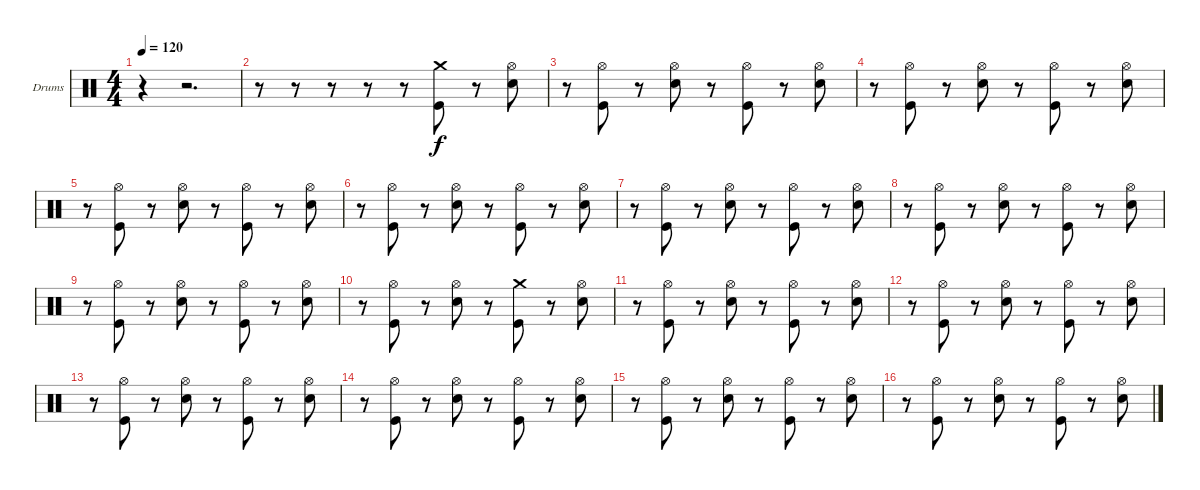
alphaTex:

\defaultSystemsLayout 4
\bracketExtendMode groupsimilarinstruments
\firstSystemTrackNameOrientation horizontal
\otherSystemsTrackNameOrientation horizontal
\track ("Drumkit" "Drums") {instrument percussion}
\staff {score}
\articulation defaults
\ts (4 4)
\tempo 120
\clef neutral
\ks c
r.4{dy f} r.2{d} |
r.8 r.8 r.8 r.8 r.8 ("Crash medium (hit)" "Kick (hit)").8 r.8 ("Hi-Hat (open)" "Snare (hit) 2").8 |
r.8 ("Kick (hit)" "Hi-Hat (open)").8 r.8 ("Snare (hit) 2" "Hi-Hat (open)").8 r.8 ("Kick (hit)" "Hi-Hat (open)").8 r.8 ("Snare (hit) 2" "Hi-Hat (open)").8 |
r.8 ("Kick (hit)" "Hi-Hat (open)").8 r.8 ("Snare (hit) 2" "Hi-Hat (open)").8 r.8 ("Kick (hit)" "Hi-Hat (open)").8 r.8 ("Snare (hit) 2" "Hi-Hat (open)").8 |
r.8 ("Kick (hit)" "Hi-Hat (open)").8 r.8 ("Snare (hit) 2" "Hi-Hat (open)").8 r.8 ("Kick (hit)" "Hi-Hat (open)").8 r.8 ("Snare (hit) 2" "Hi-Hat (open)").8 |
r.8 ("Kick (hit)" "Hi-Hat (open)").8 r.8 ("Snare (hit) 2" "Hi-Hat (open)").8 r.8 ("Kick (hit)" "Hi-Hat (open)").8 r.8 ("Snare (hit) 2" "Hi-Hat (open)").8 |
r.8 ("Kick (hit)" "Hi-Hat (open)").8 r.8 ("Snare (hit) 2" "Hi-Hat (open)").8 r.8 ("Kick (hit)" "Hi-Hat (open)").8 r.8 ("Snare (hit) 2" "Hi-Hat (open)").8 |
r.8 ("Kick (hit)" "Hi-Hat (open)").8 r.8 ("Snare (hit) 2" "Hi-Hat (open)").8 r.8 ("Kick (hit)" "Hi-Hat (open)").8 r.8 ("Snare (hit) 2" "Hi-Hat (open)").8 |
r.8 ("Kick (hit)" "Hi-Hat (open)").8 r.8 ("Snare (hit) 2" "Hi-Hat (open)").8 r.8 ("Kick (hit)" "Hi-Hat (open)").8 r.8 ("Snare (hit) 2" "Hi-Hat (open)").8 |
r.8 ("Kick (hit)" "Hi-Hat (open)").8 r.8 ("Snare (hit) 2" "Hi-Hat (open)").8 r.8 ("Kick (hit)" "Crash medium (hit)").8 r.8 ("Snare (hit) 2" "Hi-Hat (open)").8 |
r.8 ("Kick (hit)" "Hi-Hat (open)").8 r.8 ("Snare (hit) 2" "Hi-Hat (open)").8 r.8 ("Kick (hit)" "Hi-Hat (open)").8 r.8 ("Snare (hit) 2" "Hi-Hat (open)").8 |
r.8 ("Kick (hit)" "Hi-Hat (open)").8 r.8 ("Snare (hit) 2" "Hi-Hat (open)").8 r.8 ("Kick (hit)" "Hi-Hat (open)").8 r.8 ("Snare (hit) 2" "Hi-Hat (open)").8 |
r.8 ("Kick (hit)" "Hi-Hat (open)").8 r.8 ("Snare (hit) 2" "Hi-Hat (open)").8 r.8 ("Kick (hit)" "Hi-Hat (open)").8 r.8 ("Snare (hit) 2" "Hi-Hat (open)").8 |
r.8 ("Kick (hit)" "Hi-Hat (open)").8 r.8 ("Snare (hit) 2" "Hi-Hat (open)").8 r.8 ("Kick (hit)" "Hi-Hat (open)").8 r.8 ("Snare (hit) 2" "Hi-Hat (open)").8 |
r.8 ("Kick (hit)" "Hi-Hat (open)").8 r.8 ("Snare (hit) 2" "Hi-Hat (open)").8 r.8 ("Kick (hit)" "Hi-Hat (open)").8 r.8 ("Snare (hit) 2" "Hi-Hat (open)").8 |
r.8 ("Kick (hit)" "Hi-Hat (open)").8 r.8 ("Snare (hit) 2" "Hi-Hat (open)").8 r.8 ("Kick (hit)" "Hi-Hat (open)").8 r.8 ("Snare (hit) 2" "Hi-Hat (open)").8
